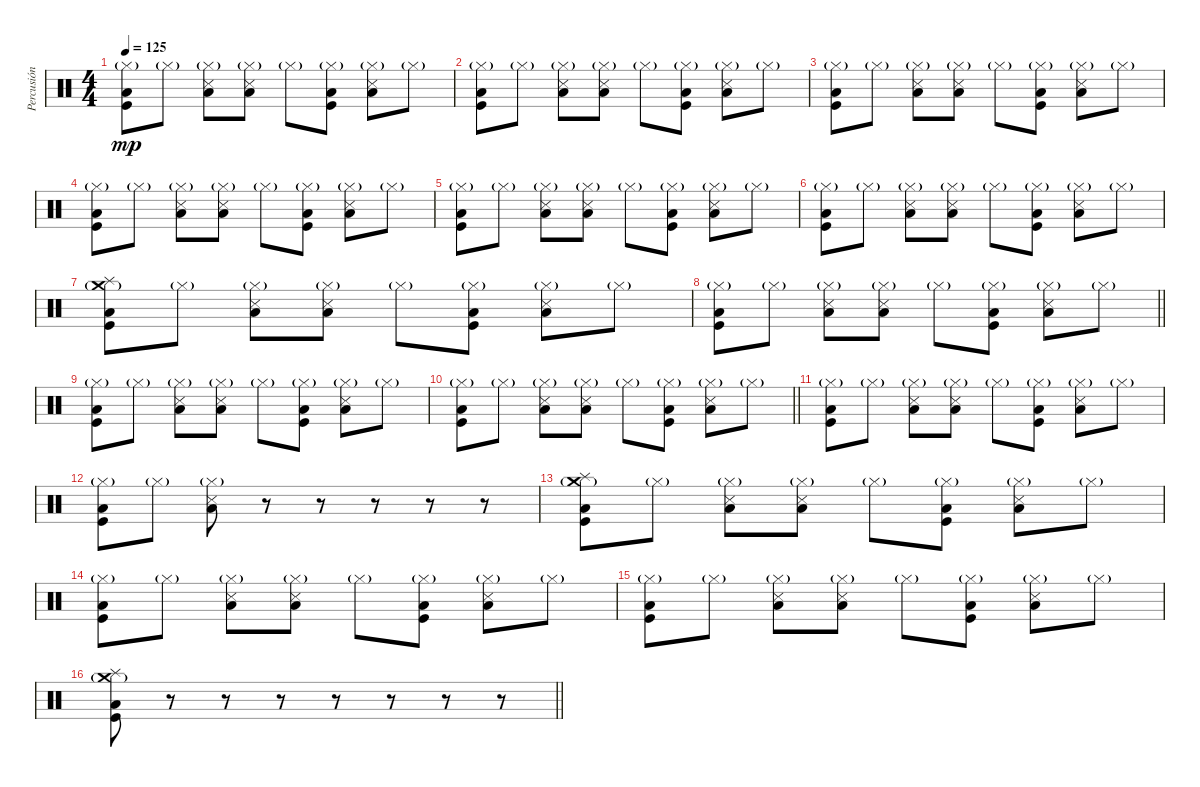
\track ("Percusión" "Percusión") {instrument percussion}
\staff {score}
\articulation defaults
\ts (4 4)
\tempo 125
\clef neutral
\ks c
("Hi-Hat (closed)"{g} "Low Floor Tom (hit)" "Kick (hit)").8{dy mp} "Hi-Hat (closed)"{g}.8 ("Hi-Hat (closed)"{g} "Low Floor Tom (hit)" "Snare (side stick) 3").8 ("Hi-Hat (closed)"{g} "Low Floor Tom (hit)" "Snare (side stick) 3").8 "Hi-Hat (closed)"{g}.8 ("Hi-Hat (closed)"{g} "Low Floor Tom (hit)" "Kick (hit)").8 ("Hi-Hat (closed)"{g} "Low Floor Tom (hit)" "Snare (side stick) 3").8 "Hi-Hat (closed)"{g}.8 |
("Hi-Hat (closed)"{g} "Low Floor Tom (hit)" "Kick (hit)").8 "Hi-Hat (closed)"{g}.8 ("Hi-Hat (closed)"{g} "Low Floor Tom (hit)" "Snare (side stick) 3").8 ("Hi-Hat (closed)"{g} "Low Floor Tom (hit)" "Snare (side stick) 3").8 "Hi-Hat (closed)"{g}.8 ("Hi-Hat (closed)"{g} "Low Floor Tom (hit)" "Kick (hit)").8 ("Hi-Hat (closed)"{g} "Low Floor Tom (hit)" "Snare (side stick) 3").8 "Hi-Hat (closed)"{g}.8 |
("Hi-Hat (closed)"{g} "Low Floor Tom (hit)" "Kick (hit)").8 "Hi-Hat (closed)"{g}.8 ("Hi-Hat (closed)"{g} "Low Floor Tom (hit)" "Snare (side stick) 3").8 ("Hi-Hat (closed)"{g} "Low Floor Tom (hit)" "Snare (side stick) 3").8 "Hi-Hat (closed)"{g}.8 ("Hi-Hat (closed)"{g} "Low Floor Tom (hit)" "Kick (hit)").8 ("Hi-Hat (closed)"{g} "Low Floor Tom (hit)" "Snare (side stick) 3").8 "Hi-Hat (closed)"{g}.8 |
("Hi-Hat (closed)"{g} "Low Floor Tom (hit)" "Kick (hit)").8 "Hi-Hat (closed)"{g}.8 ("Hi-Hat (closed)"{g} "Low Floor Tom (hit)" "Snare (side stick) 3").8 ("Hi-Hat (closed)"{g} "Low Floor Tom (hit)" "Snare (side stick) 3").8 "Hi-Hat (closed)"{g}.8 ("Hi-Hat (closed)"{g} "Low Floor Tom (hit)" "Kick (hit)").8 ("Hi-Hat (closed)"{g} "Low Floor Tom (hit)" "Snare (side stick) 3").8 "Hi-Hat (closed)"{g}.8 |
("Hi-Hat (closed)"{g} "Low Floor Tom (hit)" "Kick (hit)").8 "Hi-Hat (closed)"{g}.8 ("Hi-Hat (closed)"{g} "Low Floor Tom (hit)" "Snare (side stick) 3").8 ("Hi-Hat (closed)"{g} "Low Floor Tom (hit)" "Snare (side stick) 3").8 "Hi-Hat (closed)"{g}.8 ("Hi-Hat (closed)"{g} "Low Floor Tom (hit)" "Kick (hit)").8 ("Hi-Hat (closed)"{g} "Low Floor Tom (hit)" "Snare (side stick) 3").8 "Hi-Hat (closed)"{g}.8 |
("Hi-Hat (closed)"{g} "Low Floor Tom (hit)" "Kick (hit)").8 "Hi-Hat (closed)"{g}.8 ("Hi-Hat (closed)"{g} "Low Floor Tom (hit)" "Snare (side stick) 3").8 ("Hi-Hat (closed)"{g} "Low Floor Tom (hit)" "Snare (side stick) 3").8 "Hi-Hat (closed)"{g}.8 ("Hi-Hat (closed)"{g} "Low Floor Tom (hit)" "Kick (hit)").8 ("Hi-Hat (closed)"{g} "Low Floor Tom (hit)" "Snare (side stick) 3").8 "Hi-Hat (closed)"{g}.8 |
("Splash (hit)" "Crash medium (hit)"{g} "Low Floor Tom (hit)" "Kick (hit)").8 "Hi-Hat (closed)"{g}.8 ("Hi-Hat (closed)"{g} "Low Floor Tom (hit)" "Snare (side stick) 3").8 ("Hi-Hat (closed)"{g} "Low Floor Tom (hit)" "Snare (side stick) 3").8 "Hi-Hat (closed)"{g}.8 ("Hi-Hat (closed)"{g} "Low Floor Tom (hit)" "Kick (hit)").8 ("Hi-Hat (closed)"{g} "Low Floor Tom (hit)" "Snare (side stick) 3").8 "Hi-Hat (closed)"{g}.8 |
\barLineRight lightlight
("Hi-Hat (closed)"{g} "Low Floor Tom (hit)" "Kick (hit)").8 "Hi-Hat (closed)"{g}.8 ("Hi-Hat (closed)"{g} "Low Floor Tom (hit)" "Snare (side stick) 3").8 ("Hi-Hat (closed)"{g} "Low Floor Tom (hit)" "Snare (side stick) 3").8 "Hi-Hat (closed)"{g}.8 ("Hi-Hat (closed)"{g} "Low Floor Tom (hit)" "Kick (hit)").8 ("Hi-Hat (closed)"{g} "Low Floor Tom (hit)" "Snare (side stick) 3").8 "Hi-Hat (closed)"{g}.8 |
("Hi-Hat (closed)"{g} "Low Floor Tom (hit)" "Kick (hit)").8 "Hi-Hat (closed)"{g}.8 ("Hi-Hat (closed)"{g} "Low Floor Tom (hit)" "Snare (side stick) 3").8 ("Hi-Hat (closed)"{g} "Low Floor Tom (hit)" "Snare (side stick) 3").8 "Hi-Hat (closed)"{g}.8 ("Hi-Hat (closed)"{g} "Low Floor Tom (hit)" "Kick (hit)").8 ("Hi-Hat (closed)"{g} "Low Floor Tom (hit)" "Snare (side stick) 3").8 "Hi-Hat (closed)"{g}.8 |
\barLineRight lightlight
("Hi-Hat (closed)"{g} "Low Floor Tom (hit)" "Kick (hit)").8 "Hi-Hat (closed)"{g}.8 ("Hi-Hat (closed)"{g} "Low Floor Tom (hit)" "Snare (side stick) 3").8 ("Hi-Hat (closed)"{g} "Low Floor Tom (hit)" "Snare (side stick) 3").8 "Hi-Hat (closed)"{g}.8 ("Hi-Hat (closed)"{g} "Low Floor Tom (hit)" "Kick (hit)").8 ("Hi-Hat (closed)"{g} "Low Floor Tom (hit)" "Snare (side stick) 3").8 "Hi-Hat (closed)"{g}.8 |
("Hi-Hat (closed)"{g} "Low Floor Tom (hit)" "Kick (hit)").8 "Hi-Hat (closed)"{g}.8 ("Hi-Hat (closed)"{g} "Low Floor Tom (hit)" "Snare (side stick) 3").8 ("Hi-Hat (closed)"{g} "Low Floor Tom (hit)" "Snare (side stick) 3").8 "Hi-Hat (closed)"{g}.8 ("Hi-Hat (closed)"{g} "Low Floor Tom (hit)" "Kick (hit)").8 ("Hi-Hat (closed)"{g} "Low Floor Tom (hit)" "Snare (side stick) 3").8 "Hi-Hat (closed)"{g}.8 |
("Hi-Hat (closed)"{g} "Low Floor Tom (hit)" "Kick (hit)").8 "Hi-Hat (closed)"{g}.8 ("Hi-Hat (closed)"{g} "Low Floor Tom (hit)" "Snare (side stick) 3").8 r.8 r.8 r.8 r.8 r.8 |
("Splash (hit)" "Crash medium (hit)"{g} "Low Floor Tom (hit)" "Kick (hit)").8 "Hi-Hat (closed)"{g}.8 ("Hi-Hat (closed)"{g} "Low Floor Tom (hit)" "Snare (side stick) 3").8 ("Hi-Hat (closed)"{g} "Low Floor Tom (hit)" "Snare (side stick) 3").8 "Hi-Hat (closed)"{g}.8 ("Hi-Hat (closed)"{g} "Low Floor Tom (hit)" "Kick (hit)").8 ("Hi-Hat (closed)"{g} "Low Floor Tom (hit)" "Snare (side stick) 3").8 "Hi-Hat (closed)"{g}.8 |
("Hi-Hat (closed)"{g} "Low Floor Tom (hit)" "Kick (hit)").8 "Hi-Hat (closed)"{g}.8 ("Hi-Hat (closed)"{g} "Low Floor Tom (hit)" "Snare (side stick) 3").8 ("Hi-Hat (closed)"{g} "Low Floor Tom (hit)" "Snare (side stick) 3").8 "Hi-Hat (closed)"{g}.8 ("Hi-Hat (closed)"{g} "Low Floor Tom (hit)" "Kick (hit)").8 ("Hi-Hat (closed)"{g} "Low Floor Tom (hit)" "Snare (side stick) 3").8 "Hi-Hat (closed)"{g}.8 |
("Hi-Hat (closed)"{g} "Low Floor Tom (hit)" "Kick (hit)").8 "Hi-Hat (closed)"{g}.8 ("Hi-Hat (closed)"{g} "Low Floor Tom (hit)" "Snare (side stick) 3").8 ("Hi-Hat (closed)"{g} "Low Floor Tom (hit)" "Snare (side stick) 3").8 "Hi-Hat (closed)"{g}.8 ("Hi-Hat (closed)"{g} "Low Floor Tom (hit)" "Kick (hit)").8 ("Hi-Hat (closed)"{g} "Low Floor Tom (hit)" "Snare (side stick) 3").8 "Hi-Hat (closed)"{g}.8 |
\barLineRight lightlight
("Splash (hit)" "Crash medium (hit)"{g} "Low Floor Tom (hit)" "Kick (hit)").8 r.8 r.8 r.8 r.8 r.8 r.8 r.8
